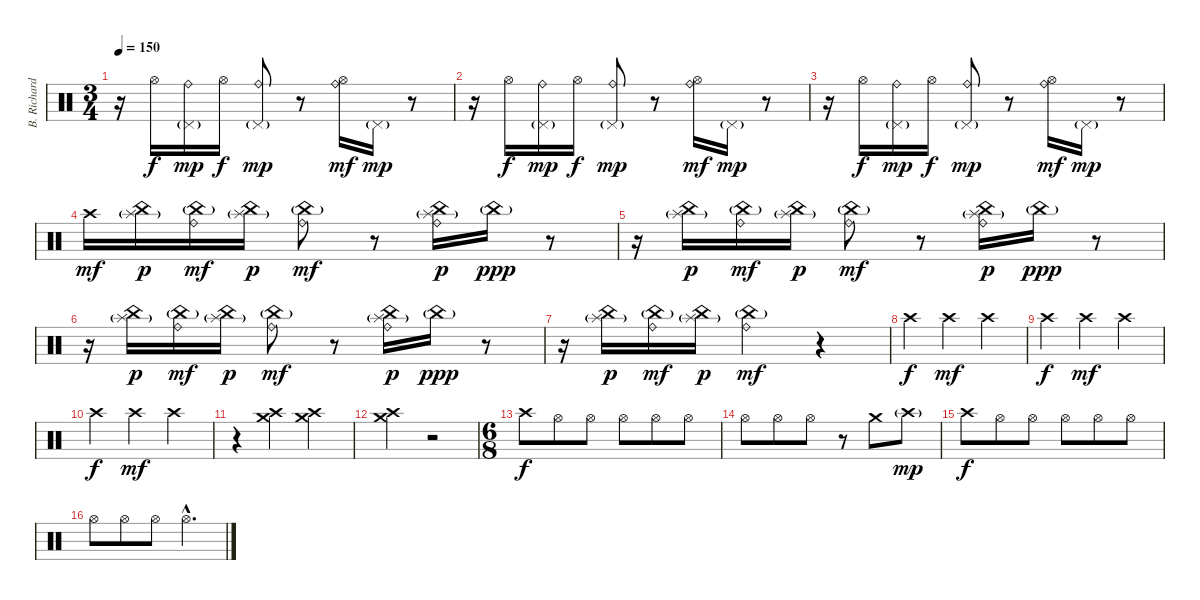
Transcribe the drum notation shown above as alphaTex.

\track ("B. Richardson Drums" "B. Richard") {instrument percussion}
\staff {score}
\articulation defaults
\ts (3 4)
\tempo 150
\clef neutral
\ks c
r.16{dy mp} "Hi-Hat (open)".16{dy f} ("Ride (bell)" "Pedal Hi-Hat (hit)"{g}).16{dy mp} "Hi-Hat (open)".16{dy f} ("Ride (bell)" "Pedal Hi-Hat (hit)"{g}).8{dy mp} r.8 ("Hi-Hat (open)" "Ride (bell)").16{dy mf} "Pedal Hi-Hat (hit)"{g}.16{dy mp} r.8 |
r.16 "Hi-Hat (open)".16{dy f} ("Ride (bell)" "Pedal Hi-Hat (hit)"{g}).16{dy mp} "Hi-Hat (open)".16{dy f} ("Ride (bell)" "Pedal Hi-Hat (hit)"{g}).8{dy mp} r.8 ("Hi-Hat (open)" "Ride (bell)").16{dy mf} "Pedal Hi-Hat (hit)"{g}.16{dy mp} r.8 |
r.16 "Hi-Hat (open)".16{dy f} ("Ride (bell)" "Pedal Hi-Hat (hit)"{g}).16{dy mp} "Hi-Hat (open)".16{dy f} ("Ride (bell)" "Pedal Hi-Hat (hit)"{g}).8{dy mp} r.8 ("Hi-Hat (open)" "Ride (bell)").16{dy mf} "Pedal Hi-Hat (hit)"{g}.16{dy mp} r.8 |
"Crash high (hit)".16{dy mf} ("China (hit)" "Splash (hit)"{g}).16{dy p} ("China (hit)"{g} "Ride (bell)").16{dy mf} ("China (hit)" "Splash (hit)"{g}).16{dy p} ("China (hit)"{g} "Ride (bell)").8{dy mf} r.8 ("China (hit)" "Ride (bell)" "Splash (hit)"{g}).16{dy p} "China (hit)"{g}.16{dy ppp} r.8 |
r.16 ("China (hit)" "Splash (hit)"{g}).16{dy p} ("China (hit)"{g} "Ride (bell)").16{dy mf} ("China (hit)" "Splash (hit)"{g}).16{dy p} ("China (hit)"{g} "Ride (bell)").8{dy mf} r.8 ("China (hit)" "Ride (bell)" "Splash (hit)"{g}).16{dy p} "China (hit)"{g}.16{dy ppp} r.8 |
r.16 ("China (hit)" "Splash (hit)"{g}).16{dy p} ("China (hit)"{g} "Ride (bell)").16{dy mf} ("China (hit)" "Splash (hit)"{g}).16{dy p} ("China (hit)"{g} "Ride (bell)").8{dy mf} r.8 ("China (hit)" "Ride (bell)" "Splash (hit)"{g}).16{dy p} "China (hit)"{g}.16{dy ppp} r.8 |
r.16 ("China (hit)" "Splash (hit)"{g}).16{dy p} ("China (hit)"{g} "Ride (bell)").16{dy mf} ("China (hit)" "Splash (hit)"{g}).16{dy p} ("China (hit)"{g} "Ride (bell)").4{dy mf} r.4 |
"Crash high (hit)".4{dy f} "Crash high (hit)".4{dy mf} "Crash high (hit)".4 |
"Crash high (hit)".4{dy f} "Crash high (hit)".4{dy mf} "Crash high (hit)".4 |
"Crash high (hit)".4{dy f} "Crash high (hit)".4{dy mf} "Crash high (hit)".4 |
r.4 ("Crash high (hit)" "Crash medium (hit)").4 ("Crash high (hit)" "Crash medium (hit)").4 |
("Crash high (hit)" "Crash medium (hit)").4 r.2 |
\ts (6 8)
"Crash high (hit)".8{dy f} "Hi-Hat (open)".8 "Hi-Hat (open)".8 "Hi-Hat (open)".8 "Hi-Hat (open)".8 "Hi-Hat (open)".8 |
"Hi-Hat (open)".8 "Hi-Hat (open)".8 "Hi-Hat (open)".8 r.8 "Crash medium (hit)".8 "Crash high (hit)"{g}.8{dy mp} |
"Crash high (hit)".8{dy f} "Hi-Hat (open)".8 "Hi-Hat (open)".8 "Hi-Hat (open)".8 "Hi-Hat (open)".8 "Hi-Hat (open)".8 |
"Hi-Hat (open)".8 "Hi-Hat (open)".8 "Hi-Hat (open)".8 "Hi-Hat (open)"{hac}.4{d}
